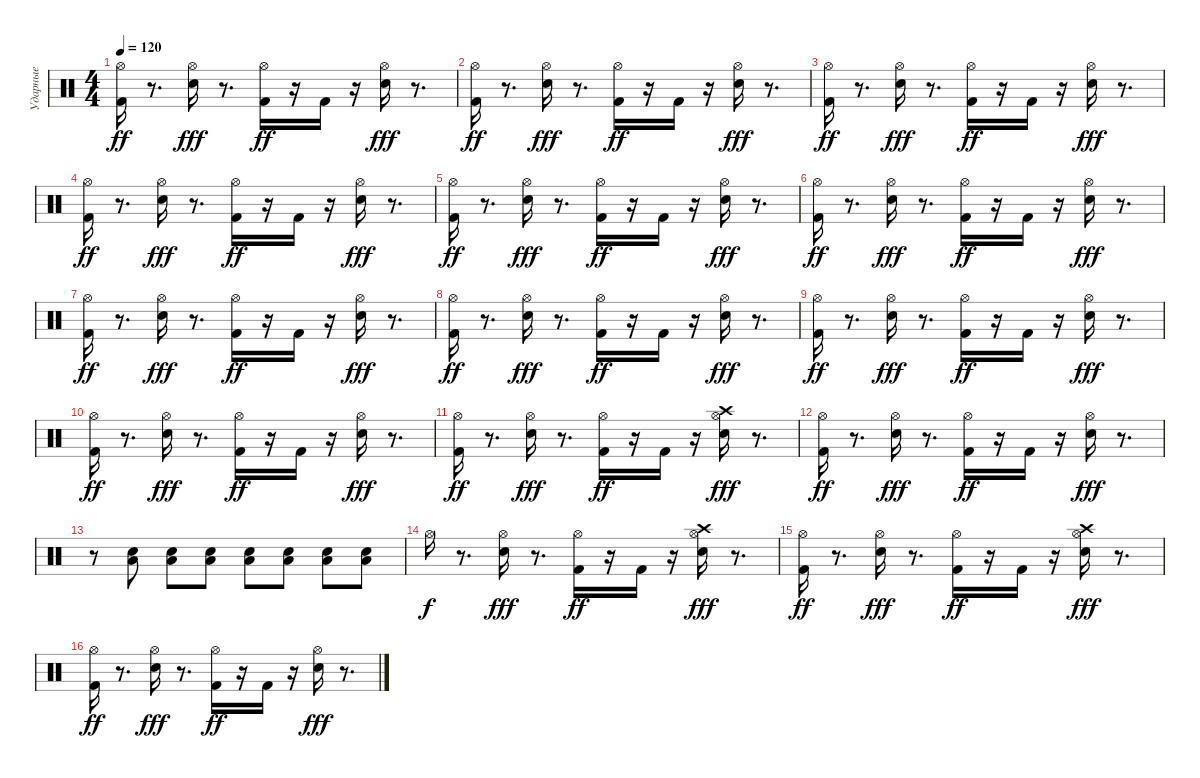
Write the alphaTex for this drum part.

\track ("Ударные" "Ударные") {instrument percussion}
\staff {score}
\articulation defaults
\ts (4 4)
\tempo 120
\clef neutral
\ks c
("Kick (hit) 2" "Hi-Hat (open)").16{dy ff} r.8{d} ("Snare (hit) 2" "Hi-Hat (open)").16{dy fff} r.8{d} ("Kick (hit) 2" "Hi-Hat (open)").16{dy ff} r.16 "Kick (hit) 2".16 r.16 ("Snare (hit) 2" "Hi-Hat (open)").16{dy fff} r.8{d} |
("Kick (hit) 2" "Hi-Hat (open)").16{dy ff} r.8{d} ("Snare (hit) 2" "Hi-Hat (open)").16{dy fff} r.8{d} ("Kick (hit) 2" "Hi-Hat (open)").16{dy ff} r.16 "Kick (hit) 2".16 r.16 ("Snare (hit) 2" "Hi-Hat (open)").16{dy fff} r.8{d} |
("Kick (hit) 2" "Hi-Hat (open)").16{dy ff} r.8{d} ("Snare (hit) 2" "Hi-Hat (open)").16{dy fff} r.8{d} ("Kick (hit) 2" "Hi-Hat (open)").16{dy ff} r.16 "Kick (hit) 2".16 r.16 ("Snare (hit) 2" "Hi-Hat (open)").16{dy fff} r.8{d} |
("Kick (hit) 2" "Hi-Hat (open)").16{dy ff} r.8{d} ("Snare (hit) 2" "Hi-Hat (open)").16{dy fff} r.8{d} ("Kick (hit) 2" "Hi-Hat (open)").16{dy ff} r.16 "Kick (hit) 2".16 r.16 ("Snare (hit) 2" "Hi-Hat (open)").16{dy fff} r.8{d} |
("Kick (hit) 2" "Hi-Hat (open)").16{dy ff} r.8{d} ("Snare (hit) 2" "Hi-Hat (open)").16{dy fff} r.8{d} ("Kick (hit) 2" "Hi-Hat (open)").16{dy ff} r.16 "Kick (hit) 2".16 r.16 ("Snare (hit) 2" "Hi-Hat (open)").16{dy fff} r.8{d} |
("Kick (hit) 2" "Hi-Hat (open)").16{dy ff} r.8{d} ("Snare (hit) 2" "Hi-Hat (open)").16{dy fff} r.8{d} ("Kick (hit) 2" "Hi-Hat (open)").16{dy ff} r.16 "Kick (hit) 2".16 r.16 ("Snare (hit) 2" "Hi-Hat (open)").16{dy fff} r.8{d} |
("Kick (hit) 2" "Hi-Hat (open)").16{dy ff} r.8{d} ("Snare (hit) 2" "Hi-Hat (open)").16{dy fff} r.8{d} ("Kick (hit) 2" "Hi-Hat (open)").16{dy ff} r.16 "Kick (hit) 2".16 r.16 ("Snare (hit) 2" "Hi-Hat (open)").16{dy fff} r.8{d} |
("Kick (hit) 2" "Hi-Hat (open)").16{dy ff} r.8{d} ("Snare (hit) 2" "Hi-Hat (open)").16{dy fff} r.8{d} ("Kick (hit) 2" "Hi-Hat (open)").16{dy ff} r.16 "Kick (hit) 2".16 r.16 ("Snare (hit) 2" "Hi-Hat (open)").16{dy fff} r.8{d} |
("Kick (hit) 2" "Hi-Hat (open)").16{dy ff} r.8{d} ("Snare (hit) 2" "Hi-Hat (open)").16{dy fff} r.8{d} ("Kick (hit) 2" "Hi-Hat (open)").16{dy ff} r.16 "Kick (hit) 2".16 r.16 ("Snare (hit) 2" "Hi-Hat (open)").16{dy fff} r.8{d} |
("Kick (hit) 2" "Hi-Hat (open)").16{dy ff} r.8{d} ("Snare (hit) 2" "Hi-Hat (open)").16{dy fff} r.8{d} ("Kick (hit) 2" "Hi-Hat (open)").16{dy ff} r.16 "Kick (hit) 2".16 r.16 ("Snare (hit) 2" "Hi-Hat (open)").16{dy fff} r.8{d} |
("Kick (hit) 2" "Hi-Hat (open)").16{dy ff} r.8{d} ("Snare (hit) 2" "Hi-Hat (open)").16{dy fff} r.8{d} ("Kick (hit) 2" "Hi-Hat (open)").16{dy ff} r.16 "Kick (hit) 2".16 r.16 ("Snare (hit) 2" "Hi-Hat (open)" "Crash high (hit)").16{dy fff} r.8{d} |
("Kick (hit) 2" "Hi-Hat (open)").16{dy ff} r.8{d} ("Snare (hit) 2" "Hi-Hat (open)").16{dy fff} r.8{d} ("Kick (hit) 2" "Hi-Hat (open)").16{dy ff} r.16 "Kick (hit) 2".16 r.16 ("Snare (hit) 2" "Hi-Hat (open)").16{dy fff} r.8{d} |
r.8 ("Snare (hit) 2" "Low Floor Tom (hit)").8 ("Snare (hit) 2" "Low Floor Tom (hit)").8 ("Snare (hit) 2" "Low Floor Tom (hit)").8 ("Snare (hit) 2" "Low Floor Tom (hit)").8 ("Snare (hit) 2" "Low Floor Tom (hit)").8 ("Snare (hit) 2" "Low Floor Tom (hit)").8 ("Snare (hit) 2" "Low Floor Tom (hit)").8 |
"Hi-Hat (open)".16{dy f} r.8{d} ("Snare (hit) 2" "Hi-Hat (open)").16{dy fff} r.8{d} ("Kick (hit) 2" "Hi-Hat (open)").16{dy ff} r.16 "Kick (hit) 2".16 r.16 ("Snare (hit) 2" "Hi-Hat (open)" "Crash high (hit)").16{dy fff} r.8{d} |
("Kick (hit) 2" "Hi-Hat (open)").16{dy ff} r.8{d} ("Snare (hit) 2" "Hi-Hat (open)").16{dy fff} r.8{d} ("Kick (hit) 2" "Hi-Hat (open)").16{dy ff} r.16 "Kick (hit) 2".16 r.16 ("Snare (hit) 2" "Hi-Hat (open)" "Crash high (hit)").16{dy fff} r.8{d} |
("Kick (hit) 2" "Hi-Hat (open)").16{dy ff} r.8{d} ("Snare (hit) 2" "Hi-Hat (open)").16{dy fff} r.8{d} ("Kick (hit) 2" "Hi-Hat (open)").16{dy ff} r.16 "Kick (hit) 2".16 r.16 ("Snare (hit) 2" "Hi-Hat (open)").16{dy fff} r.8{d}
